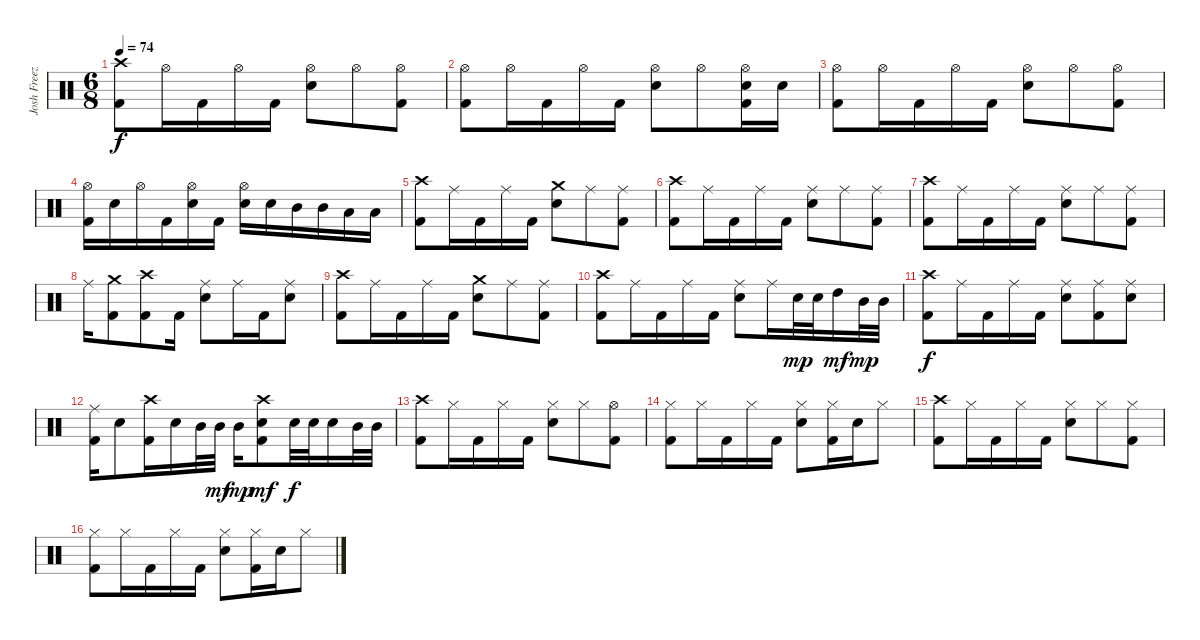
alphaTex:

\track ("Josh Freeze - Drums" "Josh Freez") {instrument percussion}
\staff {score}
\articulation defaults
\ts (6 8)
\tempo 74
\clef neutral
\ks c
("Crash high (hit)" "Kick (hit) 2").8{dy f} "Hi-Hat (open)".16 "Kick (hit) 2".16 "Hi-Hat (open)".16 "Kick (hit) 2".16 ("Hi-Hat (open)" "Electric Snare (hit)").8 "Hi-Hat (open)".8 ("Hi-Hat (open)" "Kick (hit) 2").8 |
("Hi-Hat (open)" "Kick (hit) 2").8 "Hi-Hat (open)".16 "Kick (hit) 2".16 "Hi-Hat (open)".16 "Kick (hit) 2".16 ("Hi-Hat (open)" "Electric Snare (hit)").8 "Hi-Hat (open)".8 ("Hi-Hat (open)" "Electric Snare (hit)" "Kick (hit) 2").16 "Electric Snare (hit)".16 |
("Hi-Hat (open)" "Kick (hit) 2").8 "Hi-Hat (open)".16 "Kick (hit) 2".16 "Hi-Hat (open)".16 "Kick (hit) 2".16 ("Hi-Hat (open)" "Electric Snare (hit)").8 "Hi-Hat (open)".8 ("Hi-Hat (open)" "Kick (hit) 2").8 |
("Hi-Hat (open)" "Kick (hit) 2").16 "Electric Snare (hit)".16 "Hi-Hat (open)".16 "Kick (hit) 2".16 ("Hi-Hat (open)" "Electric Snare (hit)").16 "Kick (hit) 2".16 ("Hi-Hat (open)" "Electric Snare (hit)").16 "Electric Snare (hit)".16 "Mid Tom (hit)".16 "Mid Tom (hit)".16 "Low Tom (hit)".16 "Low Tom (hit)".16 |
("Crash high (hit)" "Kick (hit) 2").8 "Ride (middle)".16 "Kick (hit) 2".16 "Ride (middle)".16 "Kick (hit) 2".16 ("Crash medium (hit)" "Electric Snare (hit)").8 "Ride (middle)".8 ("Ride (middle)" "Kick (hit) 2").8 |
("Crash high (hit)" "Kick (hit) 2").8 "Ride (middle)".16 "Kick (hit) 2".16 "Ride (middle)".16 "Kick (hit) 2".16 ("Ride (middle)" "Electric Snare (hit)").8 "Ride (middle)".8 ("Ride (middle)" "Kick (hit) 2").8 |
("Crash high (hit)" "Kick (hit) 2").8 "Ride (middle)".16 "Kick (hit) 2".16 "Ride (middle)".16 "Kick (hit) 2".16 ("Ride (middle)" "Electric Snare (hit)").8 "Ride (middle)".8 ("Ride (middle)" "Kick (hit) 2").8 |
"Ride (middle)".16 ("Crash medium (hit)" "Kick (hit) 2").8 ("Crash high (hit)" "Kick (hit) 2").8 "Kick (hit) 2".16 ("Ride (middle)" "Electric Snare (hit)").8 "Ride (middle)".16 "Kick (hit) 2".16 ("Ride (middle)" "Electric Snare (hit)").8 |
("Crash high (hit)" "Kick (hit) 2").8 "Ride (middle)".16 "Kick (hit) 2".16 "Ride (middle)".16 "Kick (hit) 2".16 ("Crash medium (hit)" "Electric Snare (hit)").8 "Ride (middle)".8 ("Ride (middle)" "Kick (hit) 2").8 |
("Crash high (hit)" "Kick (hit) 2").8 "Ride (middle)".16 "Kick (hit) 2".16 "Ride (middle)".16 "Kick (hit) 2".16 ("Ride (middle)" "Electric Snare (hit)").8 "Ride (middle)".16 "Electric Snare (hit)".32{dy mp} "Electric Snare (hit)".32 "High Tom (hit)".16{dy mf} "Mid Tom (hit)".32{dy mp} "Mid Tom (hit)".32 |
("Crash high (hit)" "Kick (hit) 2").8{dy f} "Ride (middle)".16 "Kick (hit) 2".16 "Ride (middle)".16 "Kick (hit) 2".16 ("Ride (middle)" "Electric Snare (hit)").8 ("Ride (middle)" "Kick (hit) 2").8 ("Ride (middle)" "Electric Snare (hit)").8 |
("Ride (middle)" "Kick (hit) 2").16 "Electric Snare (hit)".8 ("Crash high (hit)" "Kick (hit) 2").16 "Electric Snare (hit)".16 "Mid Tom (hit)".32 "Mid Tom (hit)".32{dy mf} "Mid Tom (hit)".16{dy mp} ("Crash high (hit)" "Electric Snare (hit)" "Kick (hit) 2").8{dy mf} "Electric Snare (hit)".32{dy f} "Electric Snare (hit)".32 "Electric Snare (hit)".16 "Mid Tom (hit)".32 "Mid Tom (hit)".32 |
("Crash high (hit)" "Kick (hit) 2").8 "Hi-Hat (closed)".16 "Kick (hit) 2".16 "Hi-Hat (closed)".16 "Kick (hit) 2".16 ("Hi-Hat (closed)" "Electric Snare (hit)").8 "Hi-Hat (closed)".8 ("Hi-Hat (open)" "Kick (hit) 2").8 |
("Hi-Hat (closed)" "Kick (hit) 2").8 "Hi-Hat (closed)".16 "Kick (hit) 2".16 "Hi-Hat (closed)".16 "Kick (hit) 2".16 ("Hi-Hat (closed)" "Electric Snare (hit)").8 ("Hi-Hat (closed)" "Kick (hit) 2").16 "Electric Snare (hit)".16 "Hi-Hat (closed)".8 |
("Crash high (hit)" "Kick (hit) 2").8 "Hi-Hat (closed)".16 "Kick (hit) 2".16 "Hi-Hat (closed)".16 "Kick (hit) 2".16 ("Hi-Hat (closed)" "Electric Snare (hit)").8 "Hi-Hat (closed)".8 ("Hi-Hat (closed)" "Kick (hit) 2").8 |
("Hi-Hat (closed)" "Kick (hit) 2").8 "Hi-Hat (closed)".16 "Kick (hit) 2".16 "Hi-Hat (closed)".16 "Kick (hit) 2".16 ("Hi-Hat (closed)" "Electric Snare (hit)").8 ("Hi-Hat (closed)" "Kick (hit) 2").16 "Electric Snare (hit)".16 "Hi-Hat (closed)".8
